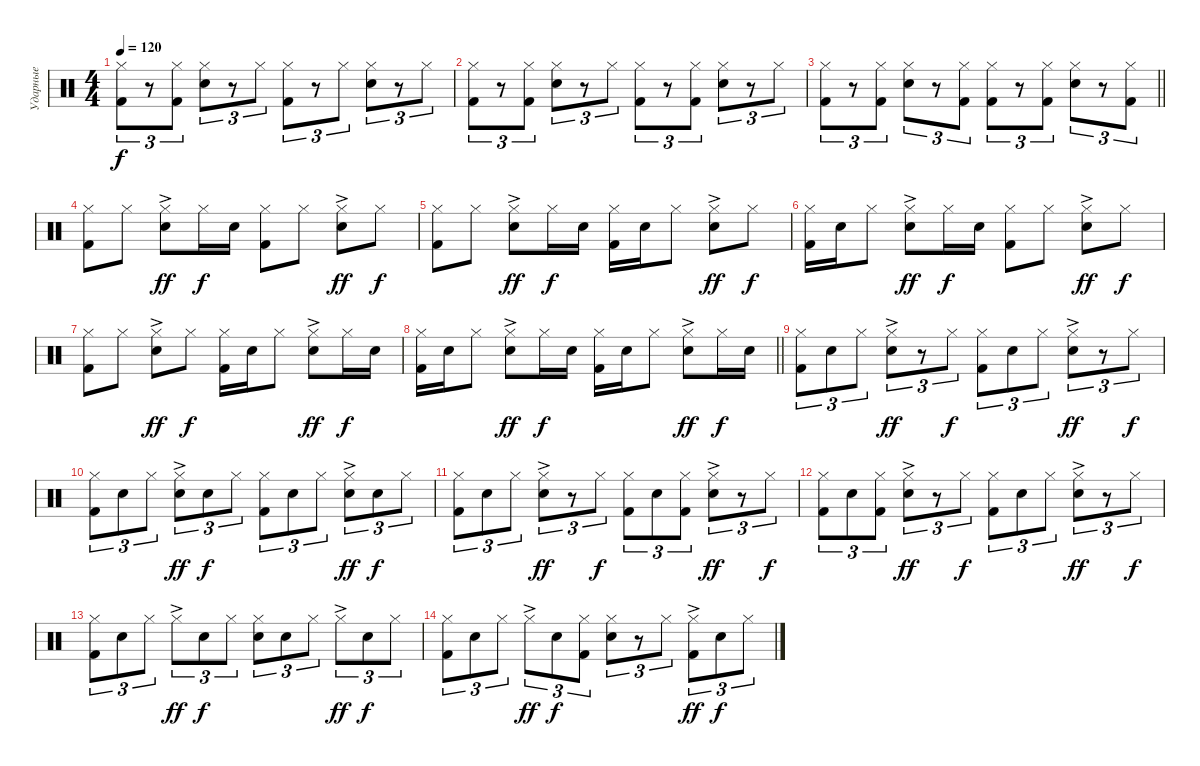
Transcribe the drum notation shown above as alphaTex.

\track ("Ударные" "Ударные") {instrument percussion}
\staff {score}
\articulation defaults
\ts (4 4)
\tempo 120
\clef neutral
\ks c
("Hi-Hat (closed)" "Kick (hit) 2").8{tu (3 2) dy f} r.8{tu (3 2)} ("Hi-Hat (closed)" "Kick (hit) 2").8{tu (3 2)} ("Hi-Hat (closed)" "Electric Snare (hit)").8{tu (3 2)} r.8{tu (3 2)} "Hi-Hat (closed)".8{tu (3 2)} ("Hi-Hat (closed)" "Kick (hit) 2").8{tu (3 2)} r.8{tu (3 2)} "Hi-Hat (closed)".8{tu (3 2)} ("Hi-Hat (closed)" "Electric Snare (hit)").8{tu (3 2)} r.8{tu (3 2)} "Hi-Hat (closed)".8{tu (3 2)} |
("Hi-Hat (closed)" "Kick (hit) 2").8{tu (3 2)} r.8{tu (3 2)} ("Hi-Hat (closed)" "Kick (hit) 2").8{tu (3 2)} ("Hi-Hat (closed)" "Electric Snare (hit)").8{tu (3 2)} r.8{tu (3 2)} "Hi-Hat (closed)".8{tu (3 2)} ("Hi-Hat (closed)" "Kick (hit) 2").8{tu (3 2)} r.8{tu (3 2)} ("Hi-Hat (closed)" "Kick (hit) 2").8{tu (3 2)} ("Hi-Hat (closed)" "Electric Snare (hit)").8{tu (3 2)} r.8{tu (3 2)} "Hi-Hat (closed)".8{tu (3 2)} |
\barLineRight lightlight
("Hi-Hat (closed)" "Kick (hit) 2").8{tu (3 2)} r.8{tu (3 2)} ("Hi-Hat (closed)" "Kick (hit) 2").8{tu (3 2)} ("Hi-Hat (closed)" "Electric Snare (hit)").8{tu (3 2)} r.8{tu (3 2)} ("Hi-Hat (closed)" "Kick (hit) 2").8{tu (3 2)} ("Hi-Hat (closed)" "Kick (hit) 2").8{tu (3 2)} r.8{tu (3 2)} ("Hi-Hat (closed)" "Kick (hit) 2").8{tu (3 2)} ("Hi-Hat (closed)" "Electric Snare (hit)").8{tu (3 2)} r.8{tu (3 2)} ("Hi-Hat (closed)" "Kick (hit) 2").8{tu (3 2)} |
("Hi-Hat (closed)" "Kick (hit) 2").8 "Hi-Hat (closed)".8 ("Hi-Hat (closed)"{ac} "Electric Snare (hit)").8{dy ff} "Hi-Hat (closed)".16{dy f} "Electric Snare (hit)".16 ("Hi-Hat (closed)" "Kick (hit) 2").8 "Hi-Hat (closed)".8 ("Hi-Hat (closed)"{ac} "Electric Snare (hit)").8{dy ff} "Hi-Hat (closed)".8{dy f} |
("Hi-Hat (closed)" "Kick (hit) 2").8 "Hi-Hat (closed)".8 ("Hi-Hat (closed)"{ac} "Electric Snare (hit)").8{dy ff} "Hi-Hat (closed)".16{dy f} "Electric Snare (hit)".16 ("Hi-Hat (closed)" "Kick (hit) 2").16 "Electric Snare (hit)".16 "Hi-Hat (closed)".8 ("Hi-Hat (closed)"{ac} "Electric Snare (hit)").8{dy ff} "Hi-Hat (closed)".8{dy f} |
("Hi-Hat (closed)" "Kick (hit) 2").16 "Electric Snare (hit)".16 "Hi-Hat (closed)".8 ("Hi-Hat (closed)"{ac} "Electric Snare (hit)").8{dy ff} "Hi-Hat (closed)".16{dy f} "Electric Snare (hit)".16 ("Hi-Hat (closed)" "Kick (hit) 2").8 "Hi-Hat (closed)".8 ("Hi-Hat (closed)"{ac} "Electric Snare (hit)").8{dy ff} "Hi-Hat (closed)".8{dy f} |
("Hi-Hat (closed)" "Kick (hit) 2").8 "Hi-Hat (closed)".8 ("Hi-Hat (closed)"{ac} "Electric Snare (hit)").8{dy ff} "Hi-Hat (closed)".8{dy f} ("Hi-Hat (closed)" "Kick (hit) 2").16 "Electric Snare (hit)".16 "Hi-Hat (closed)".8 ("Hi-Hat (closed)"{ac} "Electric Snare (hit)").8{dy ff} "Hi-Hat (closed)".16{dy f} "Electric Snare (hit)".16 |
\barLineRight lightlight
("Hi-Hat (closed)" "Kick (hit) 2").16 "Electric Snare (hit)".16 "Hi-Hat (closed)".8 ("Hi-Hat (closed)"{ac} "Electric Snare (hit)").8{dy ff} "Hi-Hat (closed)".16{dy f} "Electric Snare (hit)".16 ("Hi-Hat (closed)" "Kick (hit) 2").16 "Electric Snare (hit)".16 "Hi-Hat (closed)".8 ("Hi-Hat (closed)"{ac} "Electric Snare (hit)").8{dy ff} "Hi-Hat (closed)".16{dy f} "Electric Snare (hit)".16 |
("Hi-Hat (closed)" "Kick (hit) 2").8{tu (3 2)} "Electric Snare (hit)".8{tu (3 2)} "Hi-Hat (closed)".8{tu (3 2)} ("Hi-Hat (closed)"{ac} "Electric Snare (hit)"{ac}).8{tu (3 2) dy ff} r.8{tu (3 2)} "Hi-Hat (closed)".8{tu (3 2) dy f} ("Hi-Hat (closed)" "Kick (hit) 2").8{tu (3 2)} "Electric Snare (hit)".8{tu (3 2)} "Hi-Hat (closed)".8{tu (3 2)} ("Hi-Hat (closed)"{ac} "Electric Snare (hit)"{ac}).8{tu (3 2) dy ff} r.8{tu (3 2)} "Hi-Hat (closed)".8{tu (3 2) dy f} |
("Hi-Hat (closed)" "Kick (hit) 2").8{tu (3 2)} "Electric Snare (hit)".8{tu (3 2)} "Hi-Hat (closed)".8{tu (3 2)} ("Hi-Hat (closed)"{ac} "Electric Snare (hit)"{ac}).8{tu (3 2) dy ff} "Electric Snare (hit)".8{tu (3 2) dy f} "Hi-Hat (closed)".8{tu (3 2)} ("Hi-Hat (closed)" "Kick (hit) 2").8{tu (3 2)} "Electric Snare (hit)".8{tu (3 2)} "Hi-Hat (closed)".8{tu (3 2)} ("Hi-Hat (closed)"{ac} "Electric Snare (hit)"{ac}).8{tu (3 2) dy ff} "Electric Snare (hit)".8{tu (3 2) dy f} "Hi-Hat (closed)".8{tu (3 2)} |
("Hi-Hat (closed)" "Kick (hit) 2").8{tu (3 2)} "Electric Snare (hit)".8{tu (3 2)} "Hi-Hat (closed)".8{tu (3 2)} ("Hi-Hat (closed)"{ac} "Electric Snare (hit)"{ac}).8{tu (3 2) dy ff} r.8{tu (3 2)} "Hi-Hat (closed)".8{tu (3 2) dy f} ("Hi-Hat (closed)" "Kick (hit) 2").8{tu (3 2)} "Electric Snare (hit)".8{tu (3 2)} ("Hi-Hat (closed)" "Kick (hit) 2").8{tu (3 2)} ("Hi-Hat (closed)"{ac} "Electric Snare (hit)"{ac}).8{tu (3 2) dy ff} r.8{tu (3 2)} "Hi-Hat (closed)".8{tu (3 2) dy f} |
("Hi-Hat (closed)" "Kick (hit) 2").8{tu (3 2)} "Electric Snare (hit)".8{tu (3 2)} ("Hi-Hat (closed)" "Kick (hit) 2").8{tu (3 2)} ("Hi-Hat (closed)"{ac} "Electric Snare (hit)").8{tu (3 2) dy ff} r.8{tu (3 2)} "Hi-Hat (closed)".8{tu (3 2) dy f} ("Hi-Hat (closed)" "Kick (hit) 2").8{tu (3 2)} "Electric Snare (hit)".8{tu (3 2)} "Hi-Hat (closed)".8{tu (3 2)} ("Hi-Hat (closed)"{ac} "Electric Snare (hit)"{ac}).8{tu (3 2) dy ff} r.8{tu (3 2)} "Hi-Hat (closed)".8{tu (3 2) dy f} |
("Hi-Hat (closed)" "Kick (hit) 2").8{tu (3 2)} "Electric Snare (hit)".8{tu (3 2)} "Hi-Hat (closed)".8{tu (3 2)} "Hi-Hat (closed)"{ac}.8{tu (3 2) dy ff} "Electric Snare (hit)".8{tu (3 2) dy f} "Hi-Hat (closed)".8{tu (3 2)} ("Hi-Hat (closed)" "Electric Snare (hit)").8{tu (3 2)} "Electric Snare (hit)".8{tu (3 2)} "Hi-Hat (closed)".8{tu (3 2)} "Hi-Hat (closed)"{ac}.8{tu (3 2) dy ff} "Electric Snare (hit)".8{tu (3 2) dy f} "Hi-Hat (closed)".8{tu (3 2)} |
("Hi-Hat (closed)" "Kick (hit) 2").8{tu (3 2)} "Electric Snare (hit)".8{tu (3 2)} "Hi-Hat (closed)".8{tu (3 2)} "Hi-Hat (closed)"{ac}.8{tu (3 2) dy ff} "Electric Snare (hit)".8{tu (3 2) dy f} ("Hi-Hat (closed)" "Kick (hit) 2").8{tu (3 2)} ("Hi-Hat (closed)" "Electric Snare (hit)").8{tu (3 2)} r.8{tu (3 2)} "Hi-Hat (closed)".8{tu (3 2)} ("Hi-Hat (closed)"{ac} "Kick (hit) 2").8{tu (3 2) dy ff} "Electric Snare (hit)".8{tu (3 2) dy f} "Hi-Hat (closed)".8{tu (3 2)}
